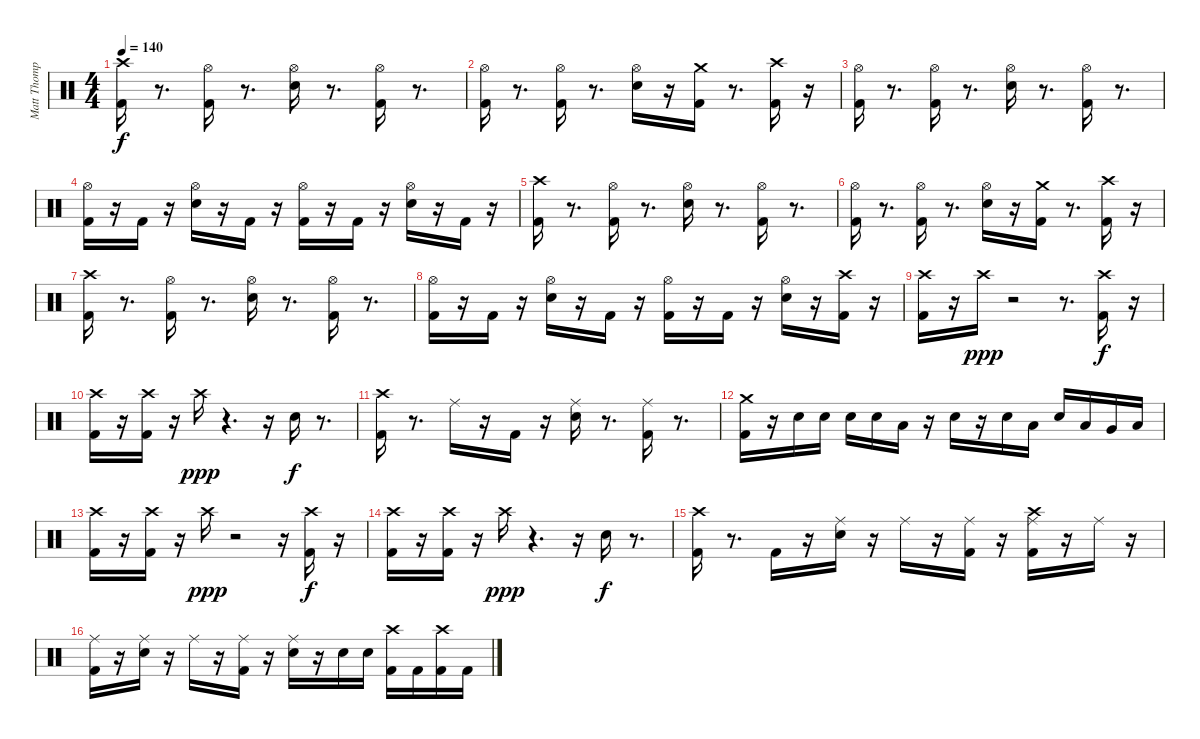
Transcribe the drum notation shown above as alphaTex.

\track ("Matt Thompson" "Matt Thomp") {instrument percussion}
\staff {score}
\articulation defaults
\ts (4 4)
\tempo 140
\clef neutral
\ks c
("Crash high (hit)" "Kick (hit) 2").16{dy f} r.8{d} ("Hi-Hat (open)" "Kick (hit) 2").16 r.8{d} ("Hi-Hat (open)" "Snare (hit) 2").16 r.8{d} ("Hi-Hat (open)" "Kick (hit) 2").16 r.8{d} |
("Hi-Hat (open)" "Kick (hit) 2").16 r.8{d} ("Hi-Hat (open)" "Kick (hit) 2").16 r.8{d} ("Hi-Hat (open)" "Snare (hit) 2").16 r.16 ("Crash medium (hit)" "Kick (hit) 2").16 r.8{d} ("Crash high (hit)" "Kick (hit) 2").16 r.16 |
("Hi-Hat (open)" "Kick (hit) 2").16 r.8{d} ("Hi-Hat (open)" "Kick (hit) 2").16 r.8{d} ("Hi-Hat (open)" "Snare (hit) 2").16 r.8{d} ("Hi-Hat (open)" "Kick (hit) 2").16 r.8{d} |
("Hi-Hat (open)" "Kick (hit) 2").16 r.16 "Kick (hit) 2".16 r.16 ("Hi-Hat (open)" "Snare (hit) 2").16 r.16 "Kick (hit) 2".16 r.16 ("Hi-Hat (open)" "Kick (hit) 2").16 r.16 "Kick (hit) 2".16 r.16 ("Hi-Hat (open)" "Snare (hit) 2").16 r.16 "Kick (hit) 2".16 r.16 |
("Crash high (hit)" "Kick (hit) 2").16 r.8{d} ("Hi-Hat (open)" "Kick (hit) 2").16 r.8{d} ("Hi-Hat (open)" "Snare (hit) 2").16 r.8{d} ("Hi-Hat (open)" "Kick (hit) 2").16 r.8{d} |
("Hi-Hat (open)" "Kick (hit) 2").16 r.8{d} ("Hi-Hat (open)" "Kick (hit) 2").16 r.8{d} ("Hi-Hat (open)" "Snare (hit) 2").16 r.16 ("Crash medium (hit)" "Kick (hit) 2").16 r.8{d} ("Crash high (hit)" "Kick (hit) 2").16 r.16 |
("Crash high (hit)" "Kick (hit) 2").16 r.8{d} ("Hi-Hat (open)" "Kick (hit) 2").16 r.8{d} ("Hi-Hat (open)" "Snare (hit) 2").16 r.8{d} ("Hi-Hat (open)" "Kick (hit) 2").16 r.8{d} |
("Hi-Hat (open)" "Kick (hit) 2").16 r.16 "Kick (hit) 2".16 r.16 ("Hi-Hat (open)" "Snare (hit) 2").16 r.16 "Kick (hit) 2".16 r.16 ("Hi-Hat (open)" "Kick (hit) 2").16 r.16 "Kick (hit) 2".16 r.16 ("Hi-Hat (open)" "Snare (hit) 2").16 r.16 ("Crash high (hit)" "Kick (hit) 2").16 r.16 |
("Crash high (hit)" "Kick (hit) 2").16 r.16 "Crash high (hit)".16{dy ppp} r.2 r.8{d} ("Crash high (hit)" "Kick (hit) 2").16{dy f} r.16 |
("Crash high (hit)" "Kick (hit) 2").16 r.16 ("Crash high (hit)" "Kick (hit) 2").16 r.16 "Crash high (hit)".16{dy ppp} r.4{d} r.16 "Snare (hit) 2".16{dy f} r.8{d} |
("Crash high (hit)" "Kick (hit) 2").16 r.8{d} "Ride (middle)".16 r.16 "Kick (hit) 2".16 r.16 ("Ride (middle)" "Snare (hit) 2").16 r.8{d} ("Ride (middle)" "Kick (hit) 2").16 r.8{d} |
("Crash medium (hit)" "Kick (hit) 2").16 r.16 "Snare (hit) 2".16 "Snare (hit) 2".16 "Snare (hit) 2".16 "Snare (hit) 2".16 "Low Tom (hit)".16 r.16 "Snare (hit) 2".16 r.16 "Snare (hit) 2".16 "Low Tom (hit)".16 "Snare (hit) 2".16 "Low Tom (hit)".16 "Very Low Tom (hit)".16 "Low Floor Tom (hit)".16 |
("Crash high (hit)" "Kick (hit) 2").16 r.16 ("Crash high (hit)" "Kick (hit) 2").16 r.16 "Crash high (hit)".16{dy ppp} r.2 r.16 ("Crash high (hit)" "Kick (hit) 2").16{dy f} r.16 |
("Crash high (hit)" "Kick (hit) 2").16 r.16 ("Crash high (hit)" "Kick (hit) 2").16 r.16 "Crash high (hit)".16{dy ppp} r.4{d} r.16 "Snare (hit) 2".16{dy f} r.8{d} |
("Crash high (hit)" "Kick (hit) 2").16 r.8{d} "Kick (hit) 2".16 r.16 ("Ride (middle)" "Snare (hit) 2").16 r.16 "Ride (middle)".16 r.16 ("Ride (middle)" "Kick (hit) 2").16 r.16 ("Ride (middle)" "Crash high (hit)" "Kick (hit) 2").16 r.16 "Ride (middle)".16 r.16 |
("Ride (middle)" "Kick (hit) 2").16 r.16 ("Ride (middle)" "Snare (hit) 2").16 r.16 "Ride (middle)".16 r.16 ("Ride (middle)" "Kick (hit) 2").16 r.16 ("Ride (middle)" "Snare (hit) 2").16 r.16 "Snare (hit) 2".16 "Snare (hit) 2".16 ("Crash high (hit)" "Kick (hit) 2").16 "Kick (hit) 2".16 ("Crash high (hit)" "Kick (hit) 2").16 "Kick (hit) 2".16
